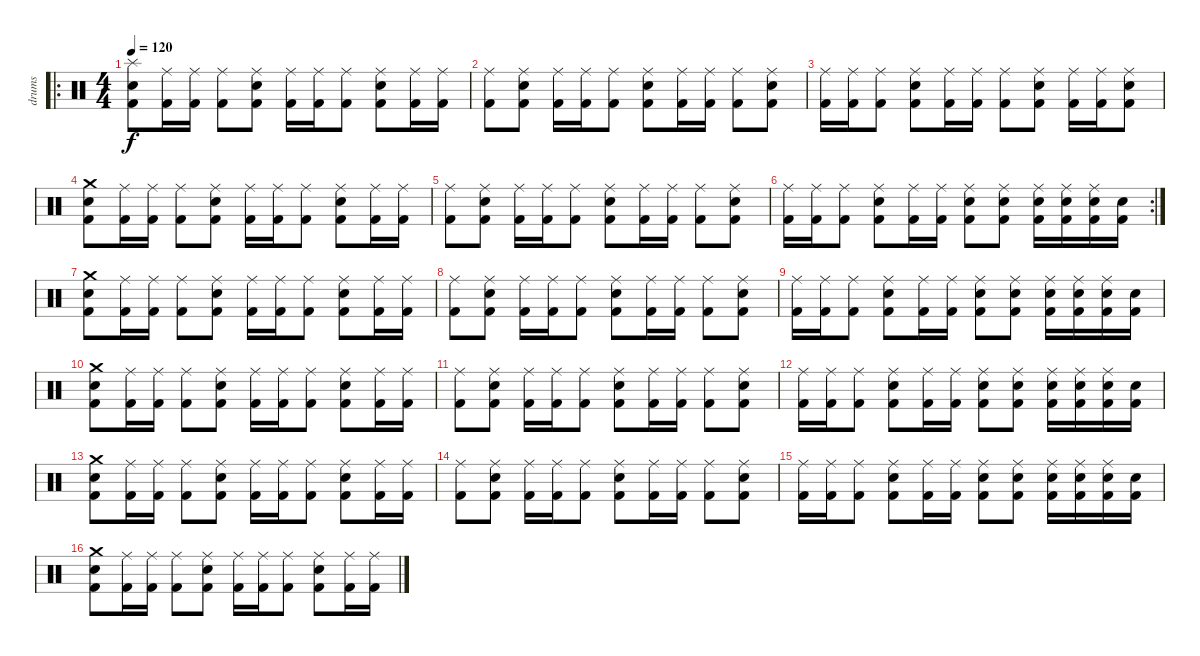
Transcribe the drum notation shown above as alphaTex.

\track ("drums" "drums") {instrument percussion}
\staff {score}
\articulation defaults
\ro
\ts (4 4)
\tempo 120
\clef neutral
\ks c
("Kick (hit) 2" "Snare (hit) 2" "Splash (hit)").8{dy f} ("Kick (hit) 2" "Ride (middle)").16 ("Kick (hit) 2" "Ride (middle)").16 ("Kick (hit) 2" "Ride (middle)").8 ("Kick (hit) 2" "Snare (hit) 2" "Ride (middle)").8 ("Kick (hit) 2" "Ride (middle)").16 ("Kick (hit) 2" "Ride (middle)").16 ("Kick (hit) 2" "Ride (middle)").8 ("Kick (hit) 2" "Snare (hit) 2" "Ride (middle)").8 ("Kick (hit) 2" "Ride (middle)").16 ("Kick (hit) 2" "Ride (middle)").16 |
("Kick (hit) 2" "Ride (middle)").8 ("Kick (hit) 2" "Snare (hit) 2" "Ride (middle)").8 ("Kick (hit) 2" "Ride (middle)").16 ("Kick (hit) 2" "Ride (middle)").16 ("Kick (hit) 2" "Ride (middle)").8 ("Kick (hit) 2" "Snare (hit) 2" "Ride (middle)").8 ("Kick (hit) 2" "Ride (middle)").16 ("Kick (hit) 2" "Ride (middle)").16 ("Kick (hit) 2" "Ride (middle)").8 ("Kick (hit) 2" "Snare (hit) 2" "Ride (middle)").8 |
("Kick (hit) 2" "Ride (middle)").16 ("Kick (hit) 2" "Ride (middle)").16 ("Kick (hit) 2" "Ride (middle)").8 ("Kick (hit) 2" "Snare (hit) 2" "Ride (middle)").8 ("Kick (hit) 2" "Ride (middle)").16 ("Kick (hit) 2" "Ride (middle)").16 ("Kick (hit) 2" "Ride (middle)").8 ("Kick (hit) 2" "Snare (hit) 2" "Ride (middle)").8 ("Kick (hit) 2" "Ride (middle)").16 ("Kick (hit) 2" "Ride (middle)").16 ("Kick (hit) 2" "Snare (hit) 2" "Ride (middle)").8 |
("Kick (hit) 2" "Snare (hit) 2" "Crash medium (hit)").8 ("Kick (hit) 2" "Ride (middle)").16 ("Kick (hit) 2" "Ride (middle)").16 ("Kick (hit) 2" "Ride (middle)").8 ("Kick (hit) 2" "Snare (hit) 2" "Ride (middle)").8 ("Kick (hit) 2" "Ride (middle)").16 ("Kick (hit) 2" "Ride (middle)").16 ("Kick (hit) 2" "Ride (middle)").8 ("Kick (hit) 2" "Snare (hit) 2" "Ride (middle)").8 ("Kick (hit) 2" "Ride (middle)").16 ("Kick (hit) 2" "Ride (middle)").16 |
("Kick (hit) 2" "Ride (middle)").8 ("Kick (hit) 2" "Snare (hit) 2" "Ride (middle)").8 ("Kick (hit) 2" "Ride (middle)").16 ("Kick (hit) 2" "Ride (middle)").16 ("Kick (hit) 2" "Ride (middle)").8 ("Kick (hit) 2" "Snare (hit) 2" "Ride (middle)").8 ("Kick (hit) 2" "Ride (middle)").16 ("Kick (hit) 2" "Ride (middle)").16 ("Kick (hit) 2" "Ride (middle)").8 ("Kick (hit) 2" "Snare (hit) 2" "Ride (middle)").8 |
\rc 2
("Kick (hit) 2" "Ride (middle)").16 ("Kick (hit) 2" "Ride (middle)").16 ("Kick (hit) 2" "Ride (middle)").8 ("Kick (hit) 2" "Snare (hit) 2" "Ride (middle)").8 ("Kick (hit) 2" "Ride (middle)").16 ("Kick (hit) 2" "Ride (middle)").16 ("Kick (hit) 2" "Snare (hit) 2" "Ride (middle)").8 ("Kick (hit) 2" "Snare (hit) 2" "Ride (middle)").8 ("Kick (hit) 2" "Snare (hit) 2" "Ride (middle)").16 ("Kick (hit) 2" "Snare (hit) 2" "Ride (middle)").16 ("Kick (hit) 2" "Snare (hit) 2" "Ride (middle)").16 ("Kick (hit) 2" "Snare (hit) 2").16 |
("Kick (hit) 2" "Snare (hit) 2" "Crash medium (hit)").8 ("Kick (hit) 2" "Ride (middle)").16 ("Kick (hit) 2" "Ride (middle)").16 ("Kick (hit) 2" "Ride (middle)").8 ("Kick (hit) 2" "Snare (hit) 2" "Ride (middle)").8 ("Kick (hit) 2" "Ride (middle)").16 ("Kick (hit) 2" "Ride (middle)").16 ("Kick (hit) 2" "Ride (middle)").8 ("Kick (hit) 2" "Snare (hit) 2" "Ride (middle)").8 ("Kick (hit) 2" "Ride (middle)").16 ("Kick (hit) 2" "Ride (middle)").16 |
("Kick (hit) 2" "Ride (middle)").8 ("Kick (hit) 2" "Snare (hit) 2" "Ride (middle)").8 ("Kick (hit) 2" "Ride (middle)").16 ("Kick (hit) 2" "Ride (middle)").16 ("Kick (hit) 2" "Ride (middle)").8 ("Kick (hit) 2" "Snare (hit) 2" "Ride (middle)").8 ("Kick (hit) 2" "Ride (middle)").16 ("Kick (hit) 2" "Ride (middle)").16 ("Kick (hit) 2" "Ride (middle)").8 ("Kick (hit) 2" "Snare (hit) 2" "Ride (middle)").8 |
("Kick (hit) 2" "Ride (middle)").16 ("Kick (hit) 2" "Ride (middle)").16 ("Kick (hit) 2" "Ride (middle)").8 ("Kick (hit) 2" "Snare (hit) 2" "Ride (middle)").8 ("Kick (hit) 2" "Ride (middle)").16 ("Kick (hit) 2" "Ride (middle)").16 ("Kick (hit) 2" "Snare (hit) 2" "Ride (middle)").8 ("Kick (hit) 2" "Snare (hit) 2" "Ride (middle)").8 ("Kick (hit) 2" "Snare (hit) 2" "Ride (middle)").16 ("Kick (hit) 2" "Snare (hit) 2" "Ride (middle)").16 ("Kick (hit) 2" "Snare (hit) 2" "Ride (middle)").16 ("Kick (hit) 2" "Snare (hit) 2").16 |
("Kick (hit) 2" "Snare (hit) 2" "Crash medium (hit)").8 ("Kick (hit) 2" "Ride (middle)").16 ("Kick (hit) 2" "Ride (middle)").16 ("Kick (hit) 2" "Ride (middle)").8 ("Kick (hit) 2" "Snare (hit) 2" "Ride (middle)").8 ("Kick (hit) 2" "Ride (middle)").16 ("Kick (hit) 2" "Ride (middle)").16 ("Kick (hit) 2" "Ride (middle)").8 ("Kick (hit) 2" "Snare (hit) 2" "Ride (middle)").8 ("Kick (hit) 2" "Ride (middle)").16 ("Kick (hit) 2" "Ride (middle)").16 |
("Kick (hit) 2" "Ride (middle)").8 ("Kick (hit) 2" "Snare (hit) 2" "Ride (middle)").8 ("Kick (hit) 2" "Ride (middle)").16 ("Kick (hit) 2" "Ride (middle)").16 ("Kick (hit) 2" "Ride (middle)").8 ("Kick (hit) 2" "Snare (hit) 2" "Ride (middle)").8 ("Kick (hit) 2" "Ride (middle)").16 ("Kick (hit) 2" "Ride (middle)").16 ("Kick (hit) 2" "Ride (middle)").8 ("Kick (hit) 2" "Snare (hit) 2" "Ride (middle)").8 |
("Kick (hit) 2" "Ride (middle)").16 ("Kick (hit) 2" "Ride (middle)").16 ("Kick (hit) 2" "Ride (middle)").8 ("Kick (hit) 2" "Snare (hit) 2" "Ride (middle)").8 ("Kick (hit) 2" "Ride (middle)").16 ("Kick (hit) 2" "Ride (middle)").16 ("Kick (hit) 2" "Snare (hit) 2" "Ride (middle)").8 ("Kick (hit) 2" "Snare (hit) 2" "Ride (middle)").8 ("Kick (hit) 2" "Snare (hit) 2" "Ride (middle)").16 ("Kick (hit) 2" "Snare (hit) 2" "Ride (middle)").16 ("Kick (hit) 2" "Snare (hit) 2" "Ride (middle)").16 ("Kick (hit) 2" "Snare (hit) 2").16 |
("Kick (hit) 2" "Snare (hit) 2" "Crash medium (hit)").8 ("Kick (hit) 2" "Ride (middle)").16 ("Kick (hit) 2" "Ride (middle)").16 ("Kick (hit) 2" "Ride (middle)").8 ("Kick (hit) 2" "Snare (hit) 2" "Ride (middle)").8 ("Kick (hit) 2" "Ride (middle)").16 ("Kick (hit) 2" "Ride (middle)").16 ("Kick (hit) 2" "Ride (middle)").8 ("Kick (hit) 2" "Snare (hit) 2" "Ride (middle)").8 ("Kick (hit) 2" "Ride (middle)").16 ("Kick (hit) 2" "Ride (middle)").16 |
("Kick (hit) 2" "Ride (middle)").8 ("Kick (hit) 2" "Snare (hit) 2" "Ride (middle)").8 ("Kick (hit) 2" "Ride (middle)").16 ("Kick (hit) 2" "Ride (middle)").16 ("Kick (hit) 2" "Ride (middle)").8 ("Kick (hit) 2" "Snare (hit) 2" "Ride (middle)").8 ("Kick (hit) 2" "Ride (middle)").16 ("Kick (hit) 2" "Ride (middle)").16 ("Kick (hit) 2" "Ride (middle)").8 ("Kick (hit) 2" "Snare (hit) 2" "Ride (middle)").8 |
("Kick (hit) 2" "Ride (middle)").16 ("Kick (hit) 2" "Ride (middle)").16 ("Kick (hit) 2" "Ride (middle)").8 ("Kick (hit) 2" "Snare (hit) 2" "Ride (middle)").8 ("Kick (hit) 2" "Ride (middle)").16 ("Kick (hit) 2" "Ride (middle)").16 ("Kick (hit) 2" "Snare (hit) 2" "Ride (middle)").8 ("Kick (hit) 2" "Snare (hit) 2" "Ride (middle)").8 ("Kick (hit) 2" "Snare (hit) 2" "Ride (middle)").16 ("Kick (hit) 2" "Snare (hit) 2" "Ride (middle)").16 ("Kick (hit) 2" "Snare (hit) 2" "Ride (middle)").16 ("Kick (hit) 2" "Snare (hit) 2").16 |
("Kick (hit) 2" "Snare (hit) 2" "Crash medium (hit)").8 ("Kick (hit) 2" "Ride (middle)").16 ("Kick (hit) 2" "Ride (middle)").16 ("Kick (hit) 2" "Ride (middle)").8 ("Kick (hit) 2" "Snare (hit) 2" "Ride (middle)").8 ("Kick (hit) 2" "Ride (middle)").16 ("Kick (hit) 2" "Ride (middle)").16 ("Kick (hit) 2" "Ride (middle)").8 ("Kick (hit) 2" "Snare (hit) 2" "Ride (middle)").8 ("Kick (hit) 2" "Ride (middle)").16 ("Kick (hit) 2" "Ride (middle)").16
